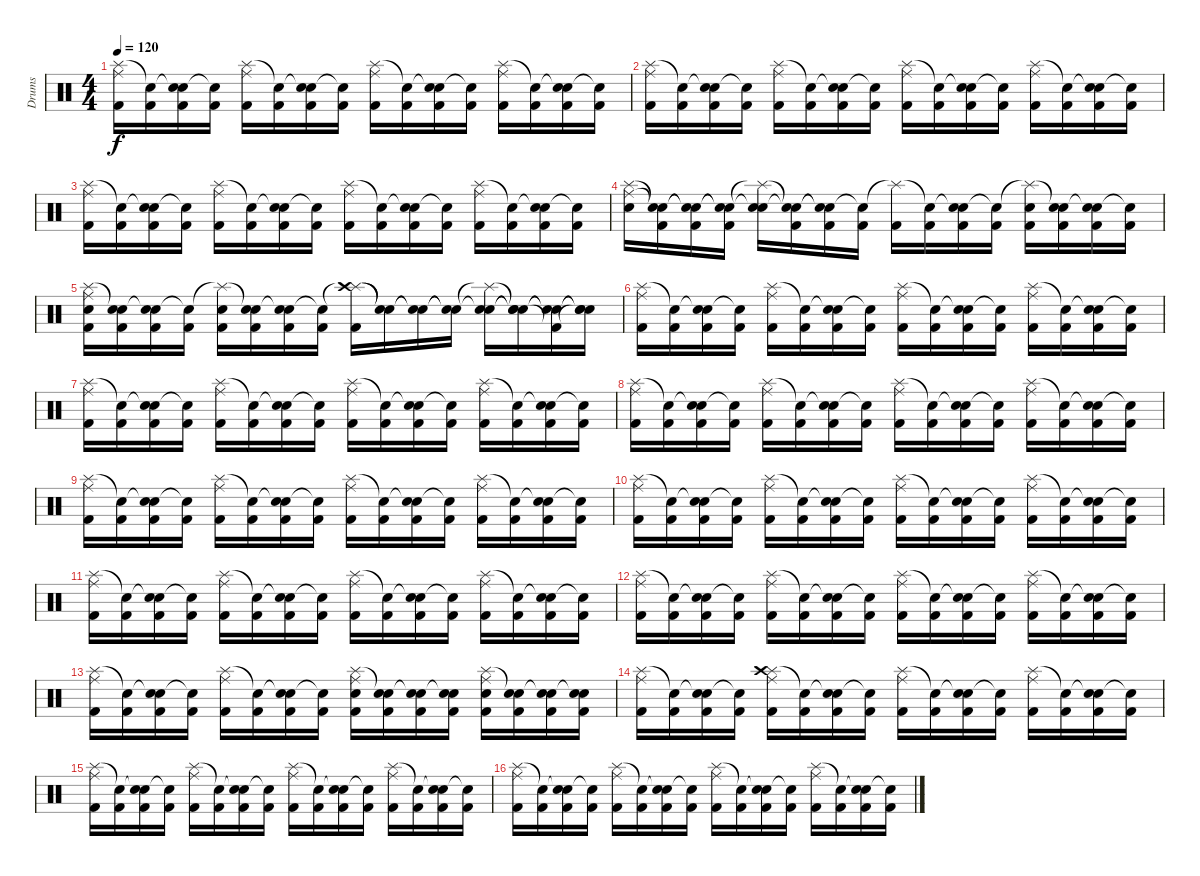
\track ("Drums" "Drums") {instrument percussion}
\staff {score}
\articulation defaults
\ts (4 4)
\tempo 120
\clef neutral
\ks c
("Splash (hit)" "Ride (middle)" "Kick (hit) 2").16{dy f} ("Snare (hit)"{t} "Kick (hit) 2").16 ("Snare (hit)"{t} "Electric Snare (hit)" "Kick (hit) 2").16 ("Snare (hit)"{t} "Kick (hit) 2").16 ("Splash (hit)" "Ride (middle)" "Kick (hit) 2").16 ("Snare (hit)"{t} "Kick (hit) 2").16 ("Snare (hit)"{t} "Electric Snare (hit)" "Kick (hit) 2").16 ("Snare (hit)"{t} "Kick (hit) 2").16 ("Splash (hit)" "Ride (middle)" "Kick (hit) 2").16 ("Snare (hit)"{t} "Kick (hit) 2").16 ("Snare (hit)"{t} "Electric Snare (hit)" "Kick (hit) 2").16 ("Snare (hit)"{t} "Kick (hit) 2").16 ("Splash (hit)" "Ride (middle)" "Kick (hit) 2").16 ("Snare (hit)"{t} "Kick (hit) 2").16 ("Snare (hit)"{t} "Electric Snare (hit)" "Kick (hit) 2").16 ("Snare (hit)"{t} "Kick (hit) 2").16 |
("Splash (hit)" "Ride (middle)" "Kick (hit) 2").16 ("Snare (hit)"{t} "Kick (hit) 2").16 ("Snare (hit)"{t} "Electric Snare (hit)" "Kick (hit) 2").16 ("Snare (hit)"{t} "Kick (hit) 2").16 ("Splash (hit)" "Ride (middle)" "Kick (hit) 2").16 ("Snare (hit)"{t} "Kick (hit) 2").16 ("Snare (hit)"{t} "Electric Snare (hit)" "Kick (hit) 2").16 ("Snare (hit)"{t} "Kick (hit) 2").16 ("Splash (hit)" "Ride (middle)" "Kick (hit) 2").16 ("Snare (hit)"{t} "Kick (hit) 2").16 ("Snare (hit)"{t} "Electric Snare (hit)" "Kick (hit) 2").16 ("Snare (hit)"{t} "Kick (hit) 2").16 ("Splash (hit)" "Ride (middle)" "Kick (hit) 2").16 ("Snare (hit)"{t} "Kick (hit) 2").16 ("Snare (hit)"{t} "Electric Snare (hit)" "Kick (hit) 2").16 ("Snare (hit)"{t} "Kick (hit) 2").16 |
("Splash (hit)" "Ride (middle)" "Kick (hit) 2").16 ("Snare (hit)"{t} "Kick (hit) 2").16 ("Snare (hit)"{t} "Electric Snare (hit)" "Kick (hit) 2").16 ("Snare (hit)"{t} "Kick (hit) 2").16 ("Splash (hit)" "Ride (middle)" "Kick (hit) 2").16 ("Snare (hit)"{t} "Kick (hit) 2").16 ("Snare (hit)"{t} "Electric Snare (hit)" "Kick (hit) 2").16 ("Snare (hit)"{t} "Kick (hit) 2").16 ("Splash (hit)" "Ride (middle)" "Kick (hit) 2").16 ("Snare (hit)"{t} "Kick (hit) 2").16 ("Snare (hit)"{t} "Electric Snare (hit)" "Kick (hit) 2").16 ("Snare (hit)"{t} "Kick (hit) 2").16 ("Splash (hit)" "Ride (middle)" "Kick (hit) 2").16 ("Snare (hit)"{t} "Kick (hit) 2").16 ("Snare (hit)"{t} "Electric Snare (hit)" "Kick (hit) 2").16 ("Snare (hit)"{t} "Kick (hit) 2").16 |
("Splash (hit)" "Ride (middle)" "Electric Snare (hit)").16 ("Snare (hit)"{t} "Snare (hit)"{t} "Kick (hit) 2").16 ("Snare (hit)"{t} "Snare (hit)"{t} "Kick (hit) 2").16 ("Snare (hit)"{t} "Snare (hit)"{t} "Kick (hit) 2").16 ("Splash (hit)"{t} "Snare (hit)"{t} "Electric Snare (hit)").16 ("Snare (hit)"{t} "Snare (hit)"{t} "Kick (hit) 2").16 ("Snare (hit)"{t} "Snare (hit)"{t} "Kick (hit) 2").16 ("Snare (hit)"{t} "Kick (hit) 2").16 ("Splash (hit)"{t} "Kick (hit) 2").16 ("Snare (hit)"{t} "Kick (hit) 2").16 ("Snare (hit)"{t} "Electric Snare (hit)" "Kick (hit) 2").16 ("Snare (hit)"{t} "Kick (hit) 2").16 ("Splash (hit)"{t} "Electric Snare (hit)" "Kick (hit) 2").16 ("Snare (hit)"{t} "Electric Snare (hit)" "Kick (hit) 2").16 ("Snare (hit)"{t} "Electric Snare (hit)" "Kick (hit) 2").16 ("Snare (hit)"{t} "Kick (hit) 2").16 |
("Splash (hit)" "Snare (hit) 2" "Kick (hit) 2" "Ride (middle)").16 ("Snare (hit)"{t} "Snare (hit) 2" "Kick (hit) 2").16 ("Snare (hit)"{t} "Electric Snare (hit)" "Kick (hit) 2").16 ("Snare (hit)"{t} "Kick (hit) 2").16 ("Splash (hit)"{t} "Snare (hit) 2" "Kick (hit) 2").16 ("Snare (hit)"{t} "Snare (hit) 2" "Kick (hit) 2").16 ("Snare (hit)"{t} "Electric Snare (hit)" "Kick (hit) 2").16 ("Snare (hit)"{t} "Kick (hit) 2").16 ("Splash (hit)"{t} "Crash high (hit)" "Kick (hit) 2").16 ("Snare (hit)"{t} "Snare (hit)"{t}).16 ("Snare (hit)"{t} "Electric Snare (hit)"{t}).16 ("Snare (hit)"{t} "Snare (hit)"{t}).16 ("Splash (hit)"{t} "Snare (hit)"{t} "Electric Snare (hit)").16 ("Snare (hit)"{t} "Snare (hit)"{t} "Electric Snare (hit)"{t}).16 ("Snare (hit)"{t} "Electric Snare (hit)"{t} "Kick (hit) 2"{t}).16 ("Snare (hit)"{t} "Snare (hit)"{t} "Snare (hit)"{t}).16 |
("Splash (hit)" "Ride (middle)" "Kick (hit) 2").16 ("Snare (hit)"{t} "Kick (hit) 2").16 ("Snare (hit)"{t} "Electric Snare (hit)" "Kick (hit) 2").16 ("Snare (hit)"{t} "Kick (hit) 2").16 ("Splash (hit)" "Ride (middle)" "Kick (hit) 2").16 ("Snare (hit)"{t} "Kick (hit) 2").16 ("Snare (hit)"{t} "Electric Snare (hit)" "Kick (hit) 2").16 ("Snare (hit)"{t} "Kick (hit) 2").16 ("Splash (hit)" "Ride (middle)" "Kick (hit) 2").16 ("Snare (hit)"{t} "Kick (hit) 2").16 ("Snare (hit)"{t} "Electric Snare (hit)" "Kick (hit) 2").16 ("Snare (hit)"{t} "Kick (hit) 2").16 ("Splash (hit)" "Ride (middle)" "Kick (hit) 2").16 ("Snare (hit)"{t} "Kick (hit) 2").16 ("Snare (hit)"{t} "Electric Snare (hit)" "Kick (hit) 2").16 ("Snare (hit)"{t} "Kick (hit) 2").16 |
("Splash (hit)" "Ride (middle)" "Kick (hit) 2").16 ("Snare (hit)"{t} "Kick (hit) 2").16 ("Snare (hit)"{t} "Electric Snare (hit)" "Kick (hit) 2").16 ("Snare (hit)"{t} "Kick (hit) 2").16 ("Splash (hit)" "Ride (middle)" "Kick (hit) 2").16 ("Snare (hit)"{t} "Kick (hit) 2").16 ("Snare (hit)"{t} "Electric Snare (hit)" "Kick (hit) 2").16 ("Snare (hit)"{t} "Kick (hit) 2").16 ("Splash (hit)" "Ride (middle)" "Kick (hit) 2").16 ("Snare (hit)"{t} "Kick (hit) 2").16 ("Snare (hit)"{t} "Electric Snare (hit)" "Kick (hit) 2").16 ("Snare (hit)"{t} "Kick (hit) 2").16 ("Splash (hit)" "Ride (middle)" "Kick (hit) 2").16 ("Snare (hit)"{t} "Kick (hit) 2").16 ("Snare (hit)"{t} "Electric Snare (hit)" "Kick (hit) 2").16 ("Snare (hit)"{t} "Kick (hit) 2").16 |
("Splash (hit)" "Ride (middle)" "Kick (hit) 2").16 ("Snare (hit)"{t} "Kick (hit) 2").16 ("Snare (hit)"{t} "Electric Snare (hit)" "Kick (hit) 2").16 ("Snare (hit)"{t} "Kick (hit) 2").16 ("Splash (hit)" "Ride (middle)" "Kick (hit) 2").16 ("Snare (hit)"{t} "Kick (hit) 2").16 ("Snare (hit)"{t} "Electric Snare (hit)" "Kick (hit) 2").16 ("Snare (hit)"{t} "Kick (hit) 2").16 ("Splash (hit)" "Ride (middle)" "Kick (hit) 2").16 ("Snare (hit)"{t} "Kick (hit) 2").16 ("Snare (hit)"{t} "Electric Snare (hit)" "Kick (hit) 2").16 ("Snare (hit)"{t} "Kick (hit) 2").16 ("Splash (hit)" "Ride (middle)" "Kick (hit) 2").16 ("Snare (hit)"{t} "Kick (hit) 2").16 ("Snare (hit)"{t} "Electric Snare (hit)" "Kick (hit) 2").16 ("Snare (hit)"{t} "Kick (hit) 2").16 |
("Splash (hit)" "Ride (middle)" "Kick (hit) 2").16 ("Snare (hit)"{t} "Kick (hit) 2").16 ("Snare (hit)"{t} "Electric Snare (hit)" "Kick (hit) 2").16 ("Snare (hit)"{t} "Kick (hit) 2").16 ("Splash (hit)" "Ride (middle)" "Kick (hit) 2").16 ("Snare (hit)"{t} "Kick (hit) 2").16 ("Snare (hit)"{t} "Electric Snare (hit)" "Kick (hit) 2").16 ("Snare (hit)"{t} "Kick (hit) 2").16 ("Splash (hit)" "Ride (middle)" "Kick (hit) 2").16 ("Snare (hit)"{t} "Kick (hit) 2").16 ("Snare (hit)"{t} "Electric Snare (hit)" "Kick (hit) 2").16 ("Snare (hit)"{t} "Kick (hit) 2").16 ("Splash (hit)" "Ride (middle)" "Kick (hit) 2").16 ("Snare (hit)"{t} "Kick (hit) 2").16 ("Snare (hit)"{t} "Electric Snare (hit)" "Kick (hit) 2").16 ("Snare (hit)"{t} "Kick (hit) 2").16 |
("Splash (hit)" "Ride (middle)" "Kick (hit) 2").16 ("Snare (hit)"{t} "Kick (hit) 2").16 ("Snare (hit)"{t} "Electric Snare (hit)" "Kick (hit) 2").16 ("Snare (hit)"{t} "Kick (hit) 2").16 ("Splash (hit)" "Ride (middle)" "Kick (hit) 2").16 ("Snare (hit)"{t} "Kick (hit) 2").16 ("Snare (hit)"{t} "Electric Snare (hit)" "Kick (hit) 2").16 ("Snare (hit)"{t} "Kick (hit) 2").16 ("Splash (hit)" "Ride (middle)" "Kick (hit) 2").16 ("Snare (hit)"{t} "Kick (hit) 2").16 ("Snare (hit)"{t} "Electric Snare (hit)" "Kick (hit) 2").16 ("Snare (hit)"{t} "Kick (hit) 2").16 ("Splash (hit)" "Ride (middle)" "Kick (hit) 2").16 ("Snare (hit)"{t} "Kick (hit) 2").16 ("Snare (hit)"{t} "Electric Snare (hit)" "Kick (hit) 2").16 ("Snare (hit)"{t} "Kick (hit) 2").16 |
("Splash (hit)" "Ride (middle)" "Kick (hit) 2").16 ("Snare (hit)"{t} "Kick (hit) 2").16 ("Snare (hit)"{t} "Electric Snare (hit)" "Kick (hit) 2").16 ("Snare (hit)"{t} "Kick (hit) 2").16 ("Splash (hit)" "Ride (middle)" "Kick (hit) 2").16 ("Snare (hit)"{t} "Kick (hit) 2").16 ("Snare (hit)"{t} "Electric Snare (hit)" "Kick (hit) 2").16 ("Snare (hit)"{t} "Kick (hit) 2").16 ("Splash (hit)" "Ride (middle)" "Kick (hit) 2").16 ("Snare (hit)"{t} "Kick (hit) 2").16 ("Snare (hit)"{t} "Electric Snare (hit)" "Kick (hit) 2").16 ("Snare (hit)"{t} "Kick (hit) 2").16 ("Splash (hit)" "Ride (middle)" "Kick (hit) 2").16 ("Snare (hit)"{t} "Kick (hit) 2").16 ("Snare (hit)"{t} "Electric Snare (hit)" "Kick (hit) 2").16 ("Snare (hit)"{t} "Kick (hit) 2").16 |
("Splash (hit)" "Ride (middle)" "Kick (hit) 2").16 ("Snare (hit)"{t} "Kick (hit) 2").16 ("Snare (hit)"{t} "Electric Snare (hit)" "Kick (hit) 2").16 ("Snare (hit)"{t} "Kick (hit) 2").16 ("Splash (hit)" "Ride (middle)" "Kick (hit) 2").16 ("Snare (hit)"{t} "Kick (hit) 2").16 ("Snare (hit)"{t} "Electric Snare (hit)" "Kick (hit) 2").16 ("Snare (hit)"{t} "Kick (hit) 2").16 ("Splash (hit)" "Ride (middle)" "Kick (hit) 2").16 ("Snare (hit)"{t} "Kick (hit) 2").16 ("Snare (hit)"{t} "Electric Snare (hit)" "Kick (hit) 2").16 ("Snare (hit)"{t} "Kick (hit) 2").16 ("Splash (hit)" "Ride (middle)" "Kick (hit) 2").16 ("Snare (hit)"{t} "Kick (hit) 2").16 ("Snare (hit)"{t} "Electric Snare (hit)" "Kick (hit) 2").16 ("Snare (hit)"{t} "Kick (hit) 2").16 |
("Splash (hit)" "Ride (middle)" "Kick (hit) 2").16 ("Snare (hit)"{t} "Kick (hit) 2").16 ("Snare (hit)"{t} "Electric Snare (hit)" "Kick (hit) 2").16 ("Snare (hit)"{t} "Kick (hit) 2").16 ("Splash (hit)" "Ride (middle)" "Kick (hit) 2").16 ("Snare (hit)"{t} "Kick (hit) 2").16 ("Snare (hit)"{t} "Electric Snare (hit)" "Kick (hit) 2").16 ("Snare (hit)"{t} "Kick (hit) 2").16 ("Splash (hit)" "Snare (hit) 2" "Kick (hit) 2" "Ride (middle)").16 ("Snare (hit)"{t} "Snare (hit) 2" "Kick (hit) 2").16 ("Snare (hit)"{t} "Electric Snare (hit)" "Kick (hit) 2").16 ("Snare (hit)"{t} "Snare (hit) 2" "Kick (hit) 2").16 ("Splash (hit)" "Electric Snare (hit)" "Kick (hit) 2" "Ride (middle)").16 ("Snare (hit)"{t} "Electric Snare (hit)" "Kick (hit) 2").16 ("Snare (hit)"{t} "Electric Snare (hit)" "Kick (hit) 2").16 ("Snare (hit)"{t} "Electric Snare (hit)" "Kick (hit) 2").16 |
("Splash (hit)" "Ride (middle)" "Kick (hit) 2").16 ("Snare (hit)"{t} "Kick (hit) 2").16 ("Snare (hit)"{t} "Electric Snare (hit)" "Kick (hit) 2").16 ("Snare (hit)"{t} "Kick (hit) 2").16 ("Splash (hit)" "Crash high (hit)" "Kick (hit) 2" "Ride (middle)").16 ("Snare (hit)"{t} "Kick (hit) 2").16 ("Snare (hit)"{t} "Electric Snare (hit)" "Kick (hit) 2").16 ("Snare (hit)"{t} "Kick (hit) 2").16 ("Splash (hit)" "Ride (middle)" "Kick (hit) 2").16 ("Snare (hit)"{t} "Kick (hit) 2").16 ("Snare (hit)"{t} "Electric Snare (hit)" "Kick (hit) 2").16 ("Snare (hit)"{t} "Kick (hit) 2").16 ("Splash (hit)" "Ride (middle)" "Kick (hit) 2").16 ("Snare (hit)"{t} "Kick (hit) 2").16 ("Snare (hit)"{t} "Electric Snare (hit)" "Kick (hit) 2").16 ("Snare (hit)"{t} "Kick (hit) 2").16 |
("Splash (hit)" "Ride (middle)" "Kick (hit) 2").16 ("Snare (hit)"{t} "Kick (hit) 2").16 ("Snare (hit)"{t} "Electric Snare (hit)" "Kick (hit) 2").16 ("Snare (hit)"{t} "Kick (hit) 2").16 ("Splash (hit)" "Ride (middle)" "Kick (hit) 2").16 ("Snare (hit)"{t} "Kick (hit) 2").16 ("Snare (hit)"{t} "Electric Snare (hit)" "Kick (hit) 2").16 ("Snare (hit)"{t} "Kick (hit) 2").16 ("Splash (hit)" "Ride (middle)" "Kick (hit) 2").16 ("Snare (hit)"{t} "Kick (hit) 2").16 ("Snare (hit)"{t} "Electric Snare (hit)" "Kick (hit) 2").16 ("Snare (hit)"{t} "Kick (hit) 2").16 ("Splash (hit)" "Ride (middle)" "Kick (hit) 2").16 ("Snare (hit)"{t} "Kick (hit) 2").16 ("Snare (hit)"{t} "Electric Snare (hit)" "Kick (hit) 2").16 ("Snare (hit)"{t} "Kick (hit) 2").16 |
("Splash (hit)" "Ride (middle)" "Kick (hit) 2").16 ("Snare (hit)"{t} "Kick (hit) 2").16 ("Snare (hit)"{t} "Electric Snare (hit)" "Kick (hit) 2").16 ("Snare (hit)"{t} "Kick (hit) 2").16 ("Splash (hit)" "Ride (middle)" "Kick (hit) 2").16 ("Snare (hit)"{t} "Kick (hit) 2").16 ("Snare (hit)"{t} "Electric Snare (hit)" "Kick (hit) 2").16 ("Snare (hit)"{t} "Kick (hit) 2").16 ("Splash (hit)" "Ride (middle)" "Kick (hit) 2").16 ("Snare (hit)"{t} "Kick (hit) 2").16 ("Snare (hit)"{t} "Electric Snare (hit)" "Kick (hit) 2").16 ("Snare (hit)"{t} "Kick (hit) 2").16 ("Splash (hit)" "Ride (middle)" "Kick (hit) 2").16 ("Snare (hit)"{t} "Kick (hit) 2").16 ("Snare (hit)"{t} "Electric Snare (hit)" "Kick (hit) 2").16 ("Snare (hit)"{t} "Kick (hit) 2").16
